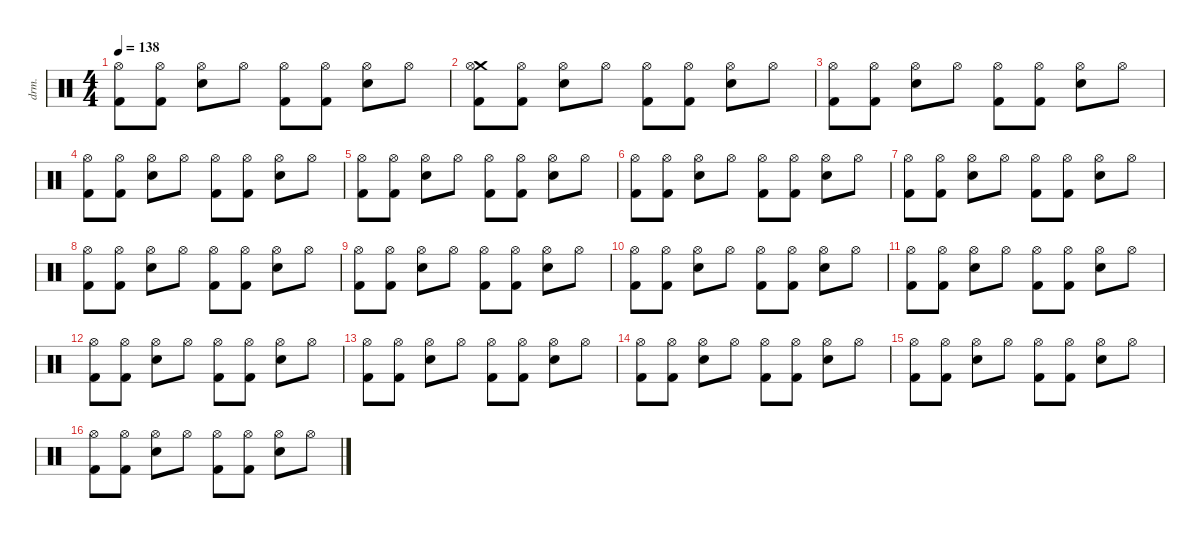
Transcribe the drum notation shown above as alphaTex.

\defaultSystemsLayout 4
\hideDynamics
\bracketExtendMode nobrackets
\otherSystemsTrackNameOrientation horizontal
\track ("Alex Van Halen " "drm.") {instrument percussion}
\staff {score}
\articulation defaults
\ts (4 4)
\tempo 138
\clef neutral
\ks c
("Hi-Hat (open)" "Kick (hit) 2").8{dy f beam Down} ("Hi-Hat (open)" "Kick (hit) 2").8{beam Down} ("Hi-Hat (open)" "Snare (hit) 2").8{beam Down} "Hi-Hat (open)".8{beam Down} ("Hi-Hat (open)" "Kick (hit) 2").8{beam Down} ("Hi-Hat (open)" "Kick (hit) 2").8{beam Down} ("Hi-Hat (open)" "Snare (hit) 2").8{beam Down} "Hi-Hat (open)".8{beam Down} |
("Crash medium (hit)" "Hi-Hat (open)" "Kick (hit) 2").8{beam Down} ("Hi-Hat (open)" "Kick (hit) 2").8{beam Down} ("Hi-Hat (open)" "Snare (hit) 2").8{beam Down} "Hi-Hat (open)".8{beam Down} ("Hi-Hat (open)" "Kick (hit) 2").8{beam Down} ("Hi-Hat (open)" "Kick (hit) 2").8{beam Down} ("Hi-Hat (open)" "Snare (hit) 2").8{beam Down} "Hi-Hat (open)".8{beam Down} |
("Hi-Hat (open)" "Kick (hit) 2").8{beam Down} ("Hi-Hat (open)" "Kick (hit) 2").8{beam Down} ("Hi-Hat (open)" "Snare (hit) 2").8{beam Down} "Hi-Hat (open)".8{beam Down} ("Hi-Hat (open)" "Kick (hit) 2").8{beam Down} ("Hi-Hat (open)" "Kick (hit) 2").8{beam Down} ("Hi-Hat (open)" "Snare (hit) 2").8{beam Down} "Hi-Hat (open)".8{beam Down} |
("Hi-Hat (open)" "Kick (hit) 2").8{beam Down} ("Hi-Hat (open)" "Kick (hit) 2").8{beam Down} ("Hi-Hat (open)" "Snare (hit) 2").8{beam Down} "Hi-Hat (open)".8{beam Down} ("Hi-Hat (open)" "Kick (hit) 2").8{beam Down} ("Hi-Hat (open)" "Kick (hit) 2").8{beam Down} ("Hi-Hat (open)" "Snare (hit) 2").8{beam Down} "Hi-Hat (open)".8{beam Down} |
("Hi-Hat (open)" "Kick (hit) 2").8{beam Down} ("Hi-Hat (open)" "Kick (hit) 2").8{beam Down} ("Hi-Hat (open)" "Snare (hit) 2").8{beam Down} "Hi-Hat (open)".8{beam Down} ("Hi-Hat (open)" "Kick (hit) 2").8{beam Down} ("Hi-Hat (open)" "Kick (hit) 2").8{beam Down} ("Hi-Hat (open)" "Snare (hit) 2").8{beam Down} "Hi-Hat (open)".8{beam Down} |
("Hi-Hat (open)" "Kick (hit) 2").8{beam Down} ("Hi-Hat (open)" "Kick (hit) 2").8{beam Down} ("Hi-Hat (open)" "Snare (hit) 2").8{beam Down} "Hi-Hat (open)".8{beam Down} ("Hi-Hat (open)" "Kick (hit) 2").8{beam Down} ("Hi-Hat (open)" "Kick (hit) 2").8{beam Down} ("Hi-Hat (open)" "Snare (hit) 2").8{beam Down} "Hi-Hat (open)".8{beam Down} |
("Hi-Hat (open)" "Kick (hit) 2").8{beam Down} ("Hi-Hat (open)" "Kick (hit) 2").8{beam Down} ("Hi-Hat (open)" "Snare (hit) 2").8{beam Down} "Hi-Hat (open)".8{beam Down} ("Hi-Hat (open)" "Kick (hit) 2").8{beam Down} ("Hi-Hat (open)" "Kick (hit) 2").8{beam Down} ("Hi-Hat (open)" "Snare (hit) 2").8{beam Down} "Hi-Hat (open)".8{beam Down} |
("Hi-Hat (open)" "Kick (hit) 2").8{beam Down} ("Hi-Hat (open)" "Kick (hit) 2").8{beam Down} ("Hi-Hat (open)" "Snare (hit) 2").8{beam Down} "Hi-Hat (open)".8{beam Down} ("Hi-Hat (open)" "Kick (hit) 2").8{beam Down} ("Hi-Hat (open)" "Kick (hit) 2").8{beam Down} ("Hi-Hat (open)" "Snare (hit) 2").8{beam Down} "Hi-Hat (open)".8{beam Down} |
("Hi-Hat (open)" "Kick (hit) 2").8{beam Down} ("Hi-Hat (open)" "Kick (hit) 2").8{beam Down} ("Hi-Hat (open)" "Snare (hit) 2").8{beam Down} "Hi-Hat (open)".8{beam Down} ("Hi-Hat (open)" "Kick (hit) 2").8{beam Down} ("Hi-Hat (open)" "Kick (hit) 2").8{beam Down} ("Hi-Hat (open)" "Snare (hit) 2").8{beam Down} "Hi-Hat (open)".8{beam Down} |
("Hi-Hat (open)" "Kick (hit) 2").8{beam Down} ("Hi-Hat (open)" "Kick (hit) 2").8{beam Down} ("Hi-Hat (open)" "Snare (hit) 2").8{beam Down} "Hi-Hat (open)".8{beam Down} ("Hi-Hat (open)" "Kick (hit) 2").8{beam Down} ("Hi-Hat (open)" "Kick (hit) 2").8{beam Down} ("Hi-Hat (open)" "Snare (hit) 2").8{beam Down} "Hi-Hat (open)".8{beam Down} |
("Hi-Hat (open)" "Kick (hit) 2").8{beam Down} ("Hi-Hat (open)" "Kick (hit) 2").8{beam Down} ("Hi-Hat (open)" "Snare (hit) 2").8{beam Down} "Hi-Hat (open)".8{beam Down} ("Hi-Hat (open)" "Kick (hit) 2").8{beam Down} ("Hi-Hat (open)" "Kick (hit) 2").8{beam Down} ("Hi-Hat (open)" "Snare (hit) 2").8{beam Down} "Hi-Hat (open)".8{beam Down} |
("Hi-Hat (open)" "Kick (hit) 2").8{beam Down} ("Hi-Hat (open)" "Kick (hit) 2").8{beam Down} ("Hi-Hat (open)" "Snare (hit) 2").8{beam Down} "Hi-Hat (open)".8{beam Down} ("Hi-Hat (open)" "Kick (hit) 2").8{beam Down} ("Hi-Hat (open)" "Kick (hit) 2").8{beam Down} ("Hi-Hat (open)" "Snare (hit) 2").8{beam Down} "Hi-Hat (open)".8{beam Down} |
("Hi-Hat (open)" "Kick (hit) 2").8{beam Down} ("Hi-Hat (open)" "Kick (hit) 2").8{beam Down} ("Hi-Hat (open)" "Snare (hit) 2").8{beam Down} "Hi-Hat (open)".8{beam Down} ("Hi-Hat (open)" "Kick (hit) 2").8{beam Down} ("Hi-Hat (open)" "Kick (hit) 2").8{beam Down} ("Hi-Hat (open)" "Snare (hit) 2").8{beam Down} "Hi-Hat (open)".8{beam Down} |
("Hi-Hat (open)" "Kick (hit) 2").8{beam Down} ("Hi-Hat (open)" "Kick (hit) 2").8{beam Down} ("Hi-Hat (open)" "Snare (hit) 2").8{beam Down} "Hi-Hat (open)".8{beam Down} ("Hi-Hat (open)" "Kick (hit) 2").8{beam Down} ("Hi-Hat (open)" "Kick (hit) 2").8{beam Down} ("Hi-Hat (open)" "Snare (hit) 2").8{beam Down} "Hi-Hat (open)".8{beam Down} |
("Hi-Hat (open)" "Kick (hit) 2").8{beam Down} ("Hi-Hat (open)" "Kick (hit) 2").8{beam Down} ("Hi-Hat (open)" "Snare (hit) 2").8{beam Down} "Hi-Hat (open)".8{beam Down} ("Hi-Hat (open)" "Kick (hit) 2").8{beam Down} ("Hi-Hat (open)" "Kick (hit) 2").8{beam Down} ("Hi-Hat (open)" "Snare (hit) 2").8{beam Down} "Hi-Hat (open)".8{beam Down} |
("Hi-Hat (open)" "Kick (hit) 2").8{beam Down} ("Hi-Hat (open)" "Kick (hit) 2").8{beam Down} ("Hi-Hat (open)" "Snare (hit) 2").8{beam Down} "Hi-Hat (open)".8{beam Down} ("Hi-Hat (open)" "Kick (hit) 2").8{beam Down} ("Hi-Hat (open)" "Kick (hit) 2").8{beam Down} ("Hi-Hat (open)" "Snare (hit) 2").8{beam Down} "Hi-Hat (open)".8{beam Down}
